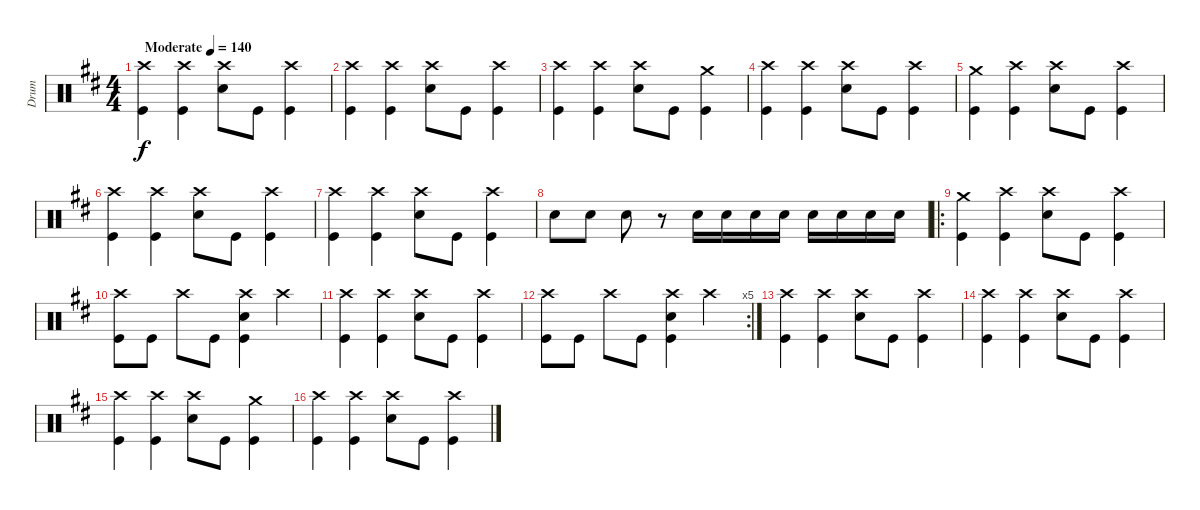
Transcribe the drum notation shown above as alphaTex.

\track ("Drum" "Drum") {instrument percussion}
\staff {score}
\articulation defaults
\ts (4 4)
\tempo (140 "Moderate")
\clef neutral
\ks d
("Crash high (hit)" "Kick (hit)").4{dy f} ("Crash high (hit)" "Kick (hit)").4 ("Crash high (hit)" "Snare (hit) 2").8 "Kick (hit)".8 ("Crash high (hit)" "Kick (hit)").4 |
("Crash high (hit)" "Kick (hit)").4 ("Crash high (hit)" "Kick (hit)").4 ("Crash high (hit)" "Snare (hit) 2").8 "Kick (hit)".8 ("Crash high (hit)" "Kick (hit)").4 |
("Crash high (hit)" "Kick (hit)").4 ("Crash high (hit)" "Kick (hit)").4 ("Crash high (hit)" "Snare (hit) 2").8 "Kick (hit)".8 ("Crash medium (hit)" "Kick (hit)").4 |
("Crash high (hit)" "Kick (hit)").4 ("Crash high (hit)" "Kick (hit)").4 ("Crash high (hit)" "Snare (hit) 2").8 "Kick (hit)".8 ("Crash high (hit)" "Kick (hit)").4 |
("Crash medium (hit)" "Kick (hit)").4 ("Crash high (hit)" "Kick (hit)").4 ("Crash high (hit)" "Snare (hit) 2").8 "Kick (hit)".8 ("Crash high (hit)" "Kick (hit)").4 |
("Crash high (hit)" "Kick (hit)").4 ("Crash high (hit)" "Kick (hit)").4 ("Crash high (hit)" "Snare (hit) 2").8 "Kick (hit)".8 ("Crash high (hit)" "Kick (hit)").4 |
("Crash high (hit)" "Kick (hit)").4 ("Crash high (hit)" "Kick (hit)").4 ("Crash high (hit)" "Snare (hit) 2").8 "Kick (hit)".8 ("Crash high (hit)" "Kick (hit)").4 |
"Snare (hit) 2".8 "Snare (hit) 2".8 "Snare (hit) 2".8 r.8 "Snare (hit) 2".16 "Snare (hit) 2".16 "Snare (hit) 2".16 "Snare (hit) 2".16 "Snare (hit) 2".16 "Snare (hit) 2".16 "Snare (hit) 2".16 "Snare (hit) 2".16 |
\ro
("Crash medium (hit)" "Kick (hit)").4 ("Crash high (hit)" "Kick (hit)").4 ("Crash high (hit)" "Snare (hit) 2").8 "Kick (hit)".8 ("Crash high (hit)" "Kick (hit)").4 |
("Crash high (hit)" "Kick (hit)").8 "Kick (hit)".8 "Crash high (hit)".8 "Kick (hit)".8 ("Crash high (hit)" "Snare (hit) 2" "Kick (hit)").4 "Crash high (hit)".4 |
("Crash high (hit)" "Kick (hit)").4 ("Crash high (hit)" "Kick (hit)").4 ("Crash high (hit)" "Snare (hit) 2").8 "Kick (hit)".8 ("Crash high (hit)" "Kick (hit)").4 |
\rc 5
("Crash high (hit)" "Kick (hit)").8 "Kick (hit)".8 "Crash high (hit)".8 "Kick (hit)".8 ("Crash high (hit)" "Snare (hit) 2" "Kick (hit)").4 "Crash high (hit)".4 |
("Crash high (hit)" "Kick (hit)").4 ("Crash high (hit)" "Kick (hit)").4 ("Crash high (hit)" "Snare (hit) 2").8 "Kick (hit)".8 ("Crash high (hit)" "Kick (hit)").4 |
("Crash high (hit)" "Kick (hit)").4 ("Crash high (hit)" "Kick (hit)").4 ("Crash high (hit)" "Snare (hit) 2").8 "Kick (hit)".8 ("Crash high (hit)" "Kick (hit)").4 |
("Crash high (hit)" "Kick (hit)").4 ("Crash high (hit)" "Kick (hit)").4 ("Crash high (hit)" "Snare (hit) 2").8 "Kick (hit)".8 ("Crash medium (hit)" "Kick (hit)").4 |
("Crash high (hit)" "Kick (hit)").4 ("Crash high (hit)" "Kick (hit)").4 ("Crash high (hit)" "Snare (hit) 2").8 "Kick (hit)".8 ("Crash high (hit)" "Kick (hit)").4
